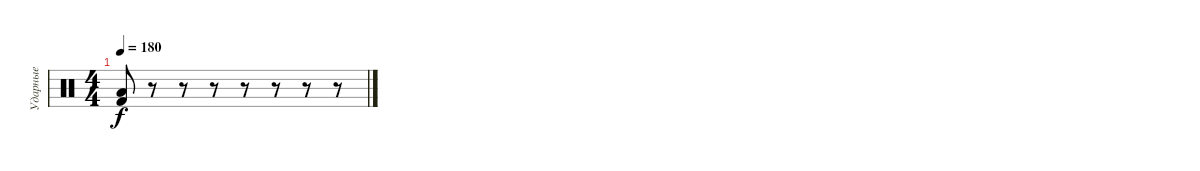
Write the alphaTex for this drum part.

\track ("Ударные" "Ударные") {instrument percussion}
\staff {score}
\articulation defaults
\ts (4 4)
\tempo 180
\clef neutral
\ks c
("Low Floor Tom (hit)" "Kick (hit) 2").8{dy f} r.8 r.8 r.8 r.8 r.8 r.8 r.8
